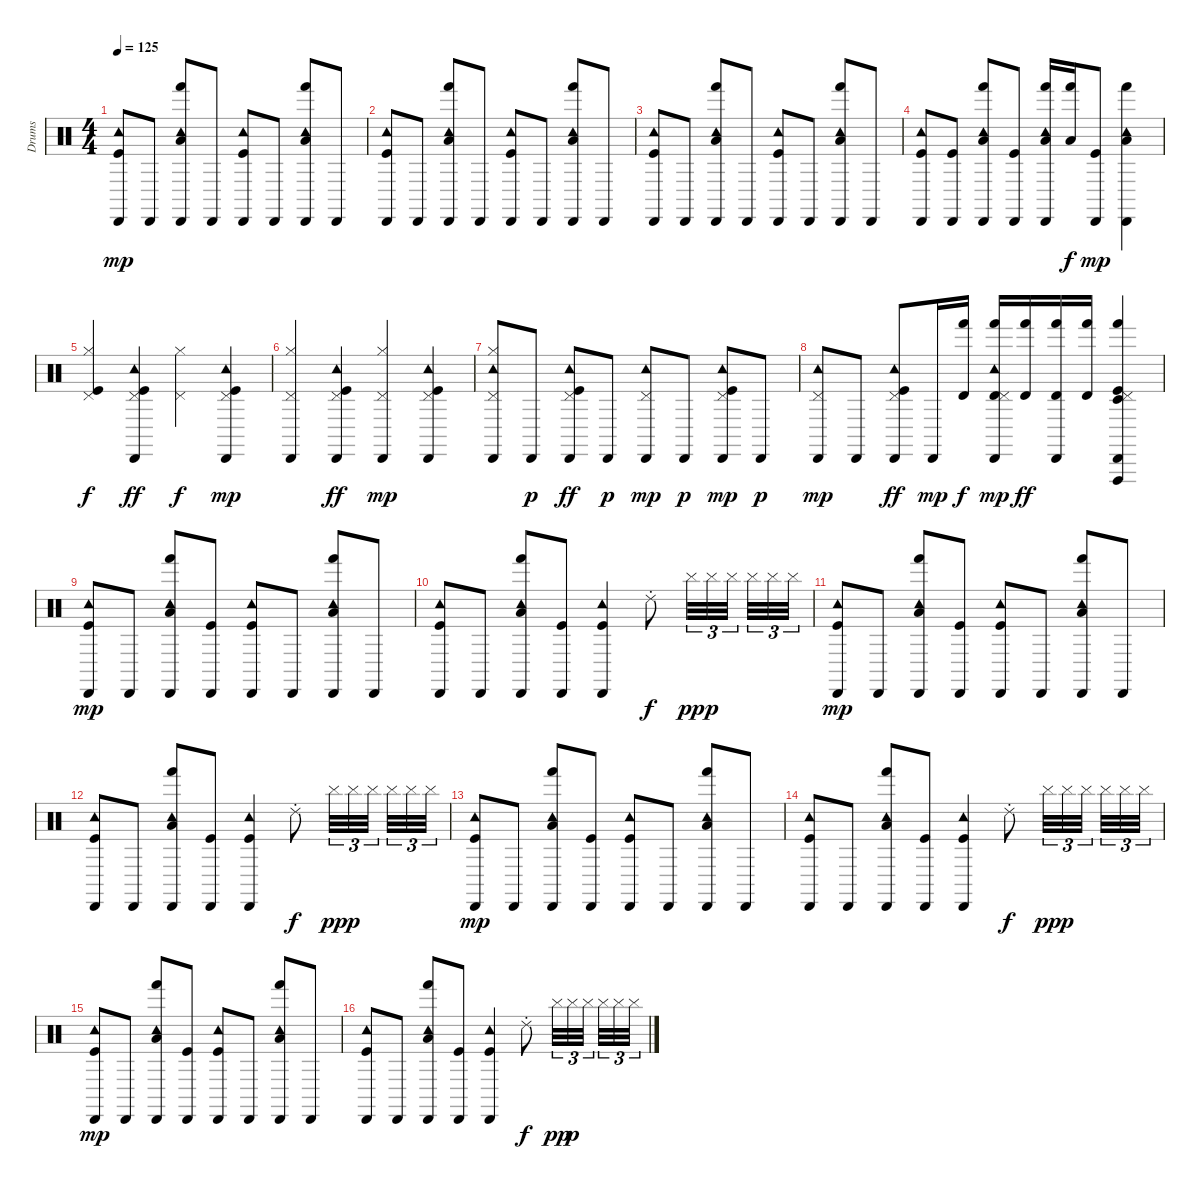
\track ("Drums" "Drums") {instrument percussion}
\staff {score}
\articulation defaults
\ts (4 4)
\tempo 125
\clef neutral
\ks c
("Kick (hit)" "Tambourine (hit)" "Cabasa (hit)").8{dy mp} "Cabasa (hit)".8 ("Low Tom (hit)" "Hand (hit)" "Tambourine (hit)" "Cabasa (hit)").8 "Cabasa (hit)".8 ("Kick (hit)" "Tambourine (hit)" "Cabasa (hit)").8 "Cabasa (hit)".8 ("Low Tom (hit)" "Hand (hit)" "Tambourine (hit)" "Cabasa (hit)").8 "Cabasa (hit)".8 |
("Kick (hit)" "Tambourine (hit)" "Cabasa (hit)").8 "Cabasa (hit)".8 ("Low Tom (hit)" "Hand (hit)" "Tambourine (hit)" "Cabasa (hit)").8 "Cabasa (hit)".8 ("Kick (hit)" "Tambourine (hit)" "Cabasa (hit)").8 "Cabasa (hit)".8 ("Low Tom (hit)" "Hand (hit)" "Tambourine (hit)" "Cabasa (hit)").8 "Cabasa (hit)".8 |
("Kick (hit)" "Tambourine (hit)" "Cabasa (hit)").8 "Cabasa (hit)".8 ("Hand (hit)" "Low Tom (hit)" "Tambourine (hit)" "Cabasa (hit)").8 "Cabasa (hit)".8 ("Kick (hit)" "Tambourine (hit)" "Cabasa (hit)").8 "Cabasa (hit)".8 ("Low Tom (hit)" "Hand (hit)" "Tambourine (hit)" "Cabasa (hit)").8 "Cabasa (hit)".8 |
("Kick (hit)" "Tambourine (hit)" "Cabasa (hit)").8 ("Kick (hit)" "Cabasa (hit)").8 ("Low Tom (hit)" "Hand (hit)" "Tambourine (hit)" "Cabasa (hit)").8 ("Kick (hit)" "Cabasa (hit)").8 ("Low Tom (hit)" "Hand (hit)" "Tambourine (hit)" "Cabasa (hit)").16 ("Low Tom (hit)" "Hand (hit)").16{dy f} ("Kick (hit)" "Cabasa (hit)").8{dy mp} ("Low Tom (hit)" "Hand (hit)" "Tambourine (hit)" "Cabasa (hit)").4 |
("Hi-Hat (closed)" "Kick (hit)" "Pedal Hi-Hat (hit)").4{dy f} ("Cabasa (hit)" "Tambourine (hit)" "Kick (hit)" "Pedal Hi-Hat (hit)").4{dy ff} ("Hi-Hat (closed)" "Pedal Hi-Hat (hit)").4{dy f} ("Cabasa (hit)" "Tambourine (hit)" "Kick (hit)" "Pedal Hi-Hat (hit)").4{dy mp} |
("Hi-Hat (closed)" "Cabasa (hit)" "Pedal Hi-Hat (hit)").4 ("Cabasa (hit)" "Tambourine (hit)" "Kick (hit)" "Pedal Hi-Hat (hit)").4{dy ff} ("Hi-Hat (closed)" "Cabasa (hit)" "Pedal Hi-Hat (hit)").4{dy mp} ("Cabasa (hit)" "Tambourine (hit)" "Kick (hit)" "Pedal Hi-Hat (hit)").4 |
("Hi-Hat (closed)" "Cabasa (hit)" "Tambourine (hit)" "Pedal Hi-Hat (hit)").8 "Cabasa (hit)".8{dy p} ("Cabasa (hit)" "Tambourine (hit)" "Kick (hit)" "Pedal Hi-Hat (hit)").8{dy ff} "Cabasa (hit)".8{dy p} ("Cabasa (hit)" "Tambourine (hit)" "Pedal Hi-Hat (hit)").8{dy mp} "Cabasa (hit)".8{dy p} ("Cabasa (hit)" "Tambourine (hit)" "Kick (hit)" "Pedal Hi-Hat (hit)").8{dy mp} "Cabasa (hit)".8{dy p} |
("Cabasa (hit)" "Tambourine (hit)" "Pedal Hi-Hat (hit)").8{dy mp} "Cabasa (hit)".8 ("Cabasa (hit)" "Tambourine (hit)" "Kick (hit)" "Pedal Hi-Hat (hit)").8{dy ff} "Cabasa (hit)".16{dy mp} ("Timbale high (hit)" "Hand (hit)").16{dy f} ("Cabasa (hit)" "Tambourine (hit)" "Timbale high (hit)" "Hand (hit)" "Pedal Hi-Hat (hit)").16{dy mp} ("Timbale high (hit)" "Hand (hit)").16{dy ff} ("Cabasa (hit)" "Timbale high (hit)" "Hand (hit)").16 ("Timbale high (hit)" "Hand (hit)").16 ("Cabasa (hit)" "Vibraslap (hit)" "Timbale low (hit)" "Hand (hit)" "Kick (hit)" "Pedal Hi-Hat (hit)").4 |
("Kick (hit)" "Tambourine (hit)" "Cabasa (hit)").8{dy mp} "Cabasa (hit)".8 ("Hand (hit)" "Low Tom (hit)" "Tambourine (hit)" "Cabasa (hit)").8 ("Kick (hit)" "Cabasa (hit)").8 ("Kick (hit)" "Tambourine (hit)" "Cabasa (hit)").8 "Cabasa (hit)".8 ("Low Tom (hit)" "Hand (hit)" "Tambourine (hit)" "Cabasa (hit)").8 "Cabasa (hit)".8 |
("Kick (hit)" "Tambourine (hit)" "Cabasa (hit)").8 "Cabasa (hit)".8 ("Hand (hit)" "Low Tom (hit)" "Tambourine (hit)" "Cabasa (hit)").8 ("Kick (hit)" "Cabasa (hit)").8 ("Tambourine (hit)" "Kick (hit)" "Cabasa (hit)").4 "Ride (choke) 2".8{dy f} "Cymbal (hit)".32{tu (3 2) dy pp} "Cymbal (hit)".32{tu (3 2) dy p} "Cymbal (hit)".32{tu (3 2)} "Cymbal (hit)".32{tu (3 2)} "Cymbal (hit)".32{tu (3 2)} "Cymbal (hit)".32{tu (3 2)} |
("Kick (hit)" "Tambourine (hit)" "Cabasa (hit)").8{dy mp} "Cabasa (hit)".8 ("Hand (hit)" "Low Tom (hit)" "Tambourine (hit)" "Cabasa (hit)").8 ("Kick (hit)" "Cabasa (hit)").8 ("Kick (hit)" "Tambourine (hit)" "Cabasa (hit)").8 "Cabasa (hit)".8 ("Low Tom (hit)" "Hand (hit)" "Tambourine (hit)" "Cabasa (hit)").8 "Cabasa (hit)".8 |
("Kick (hit)" "Tambourine (hit)" "Cabasa (hit)").8 "Cabasa (hit)".8 ("Hand (hit)" "Low Tom (hit)" "Tambourine (hit)" "Cabasa (hit)").8 ("Kick (hit)" "Cabasa (hit)").8 ("Tambourine (hit)" "Kick (hit)" "Cabasa (hit)").4 "Ride (choke) 2".8{dy f} "Cymbal (hit)".32{tu (3 2) dy pp} "Cymbal (hit)".32{tu (3 2) dy p} "Cymbal (hit)".32{tu (3 2)} "Cymbal (hit)".32{tu (3 2)} "Cymbal (hit)".32{tu (3 2)} "Cymbal (hit)".32{tu (3 2)} |
("Kick (hit)" "Tambourine (hit)" "Cabasa (hit)").8{dy mp} "Cabasa (hit)".8 ("Hand (hit)" "Low Tom (hit)" "Tambourine (hit)" "Cabasa (hit)").8 ("Kick (hit)" "Cabasa (hit)").8 ("Kick (hit)" "Tambourine (hit)" "Cabasa (hit)").8 "Cabasa (hit)".8 ("Low Tom (hit)" "Hand (hit)" "Tambourine (hit)" "Cabasa (hit)").8 "Cabasa (hit)".8 |
("Kick (hit)" "Tambourine (hit)" "Cabasa (hit)").8 "Cabasa (hit)".8 ("Hand (hit)" "Low Tom (hit)" "Tambourine (hit)" "Cabasa (hit)").8 ("Kick (hit)" "Cabasa (hit)").8 ("Tambourine (hit)" "Kick (hit)" "Cabasa (hit)").4 "Ride (choke) 2".8{dy f} "Cymbal (hit)".32{tu (3 2) dy pp} "Cymbal (hit)".32{tu (3 2) dy p} "Cymbal (hit)".32{tu (3 2)} "Cymbal (hit)".32{tu (3 2)} "Cymbal (hit)".32{tu (3 2)} "Cymbal (hit)".32{tu (3 2)} |
("Kick (hit)" "Tambourine (hit)" "Cabasa (hit)").8{dy mp} "Cabasa (hit)".8 ("Hand (hit)" "Low Tom (hit)" "Tambourine (hit)" "Cabasa (hit)").8 ("Kick (hit)" "Cabasa (hit)").8 ("Kick (hit)" "Tambourine (hit)" "Cabasa (hit)").8 "Cabasa (hit)".8 ("Low Tom (hit)" "Hand (hit)" "Tambourine (hit)" "Cabasa (hit)").8 "Cabasa (hit)".8 |
("Kick (hit)" "Tambourine (hit)" "Cabasa (hit)").8 "Cabasa (hit)".8 ("Hand (hit)" "Low Tom (hit)" "Tambourine (hit)" "Cabasa (hit)").8 ("Kick (hit)" "Cabasa (hit)").8 ("Tambourine (hit)" "Kick (hit)" "Cabasa (hit)").4 "Ride (choke) 2".8{dy f} "Cymbal (hit)".32{tu (3 2) dy pp} "Cymbal (hit)".32{tu (3 2) dy p} "Cymbal (hit)".32{tu (3 2)} "Cymbal (hit)".32{tu (3 2)} "Cymbal (hit)".32{tu (3 2)} "Cymbal (hit)".32{tu (3 2)}
